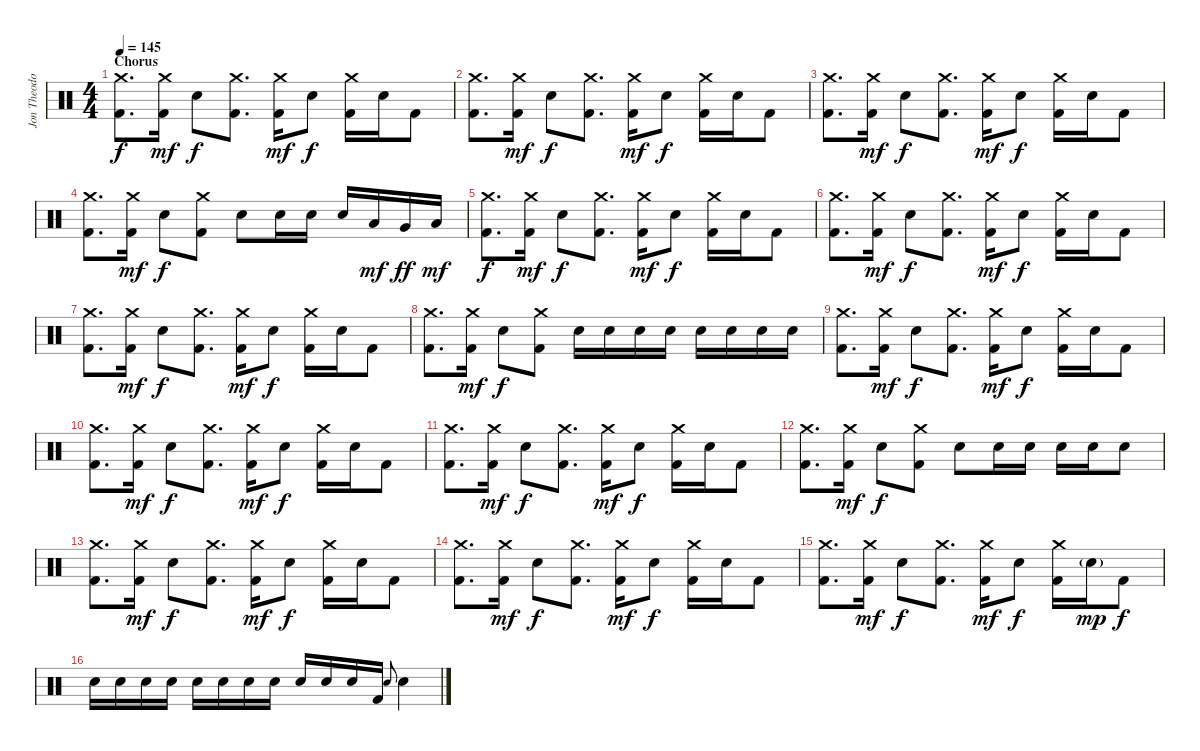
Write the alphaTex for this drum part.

\track ("Jon Theodore - Drums" "Jon Theodo") {instrument percussion}
\staff {score}
\articulation defaults
\ts (4 4)
\section ("" "Chorus")
\tempo 145
\clef neutral
\ks c
("Crash medium (hit)" "Kick (hit) 2").8{d dy f} ("Crash medium (hit)" "Kick (hit) 2").16{dy mf} "Electric Snare (hit)".8{dy f} ("Crash medium (hit)" "Kick (hit) 2").8{d} ("Crash medium (hit)" "Kick (hit) 2").16{dy mf} "Electric Snare (hit)".8{dy f} ("Crash medium (hit)" "Kick (hit) 2").16 "Electric Snare (hit)".16 "Kick (hit) 2".8 |
("Crash medium (hit)" "Kick (hit) 2").8{d} ("Crash medium (hit)" "Kick (hit) 2").16{dy mf} "Electric Snare (hit)".8{dy f} ("Crash medium (hit)" "Kick (hit) 2").8{d} ("Crash medium (hit)" "Kick (hit) 2").16{dy mf} "Electric Snare (hit)".8{dy f} ("Crash medium (hit)" "Kick (hit) 2").16 "Electric Snare (hit)".16 "Kick (hit) 2".8 |
("Crash medium (hit)" "Kick (hit) 2").8{d} ("Crash medium (hit)" "Kick (hit) 2").16{dy mf} "Electric Snare (hit)".8{dy f} ("Crash medium (hit)" "Kick (hit) 2").8{d} ("Crash medium (hit)" "Kick (hit) 2").16{dy mf} "Electric Snare (hit)".8{dy f} ("Crash medium (hit)" "Kick (hit) 2").16 "Electric Snare (hit)".16 "Kick (hit) 2".8 |
("Crash medium (hit)" "Kick (hit) 2").8{d} ("Crash medium (hit)" "Kick (hit) 2").16{dy mf} "Electric Snare (hit)".8{dy f} ("Crash medium (hit)" "Kick (hit) 2").8 "Electric Snare (hit)".8 "Electric Snare (hit)".16 "Electric Snare (hit)".16 "Electric Snare (hit)".16 "Low Tom (hit)".16{dy mf} "Very Low Tom (hit)".16{dy ff} "Low Floor Tom (hit)".16{dy mf} |
("Crash medium (hit)" "Kick (hit) 2").8{d dy f} ("Crash medium (hit)" "Kick (hit) 2").16{dy mf} "Electric Snare (hit)".8{dy f} ("Crash medium (hit)" "Kick (hit) 2").8{d} ("Crash medium (hit)" "Kick (hit) 2").16{dy mf} "Electric Snare (hit)".8{dy f} ("Crash medium (hit)" "Kick (hit) 2").16 "Electric Snare (hit)".16 "Kick (hit) 2".8 |
("Crash medium (hit)" "Kick (hit) 2").8{d} ("Crash medium (hit)" "Kick (hit) 2").16{dy mf} "Electric Snare (hit)".8{dy f} ("Crash medium (hit)" "Kick (hit) 2").8{d} ("Crash medium (hit)" "Kick (hit) 2").16{dy mf} "Electric Snare (hit)".8{dy f} ("Crash medium (hit)" "Kick (hit) 2").16 "Electric Snare (hit)".16 "Kick (hit) 2".8 |
("Crash medium (hit)" "Kick (hit) 2").8{d} ("Crash medium (hit)" "Kick (hit) 2").16{dy mf} "Electric Snare (hit)".8{dy f} ("Crash medium (hit)" "Kick (hit) 2").8{d} ("Crash medium (hit)" "Kick (hit) 2").16{dy mf} "Electric Snare (hit)".8{dy f} ("Crash medium (hit)" "Kick (hit) 2").16 "Electric Snare (hit)".16 "Kick (hit) 2".8 |
("Crash medium (hit)" "Kick (hit) 2").8{d} ("Crash medium (hit)" "Kick (hit) 2").16{dy mf} "Electric Snare (hit)".8{dy f} ("Crash medium (hit)" "Kick (hit) 2").8 "Electric Snare (hit)".16 "Electric Snare (hit)".16 "Electric Snare (hit)".16 "Electric Snare (hit)".16 "Electric Snare (hit)".16 "Electric Snare (hit)".16 "Electric Snare (hit)".16 "Electric Snare (hit)".16 |
("Crash medium (hit)" "Kick (hit) 2").8{d} ("Crash medium (hit)" "Kick (hit) 2").16{dy mf} "Electric Snare (hit)".8{dy f} ("Crash medium (hit)" "Kick (hit) 2").8{d} ("Crash medium (hit)" "Kick (hit) 2").16{dy mf} "Electric Snare (hit)".8{dy f} ("Crash medium (hit)" "Kick (hit) 2").16 "Electric Snare (hit)".16 "Kick (hit) 2".8 |
("Crash medium (hit)" "Kick (hit) 2").8{d} ("Crash medium (hit)" "Kick (hit) 2").16{dy mf} "Electric Snare (hit)".8{dy f} ("Crash medium (hit)" "Kick (hit) 2").8{d} ("Crash medium (hit)" "Kick (hit) 2").16{dy mf} "Electric Snare (hit)".8{dy f} ("Crash medium (hit)" "Kick (hit) 2").16 "Electric Snare (hit)".16 "Kick (hit) 2".8 |
("Crash medium (hit)" "Kick (hit) 2").8{d} ("Crash medium (hit)" "Kick (hit) 2").16{dy mf} "Electric Snare (hit)".8{dy f} ("Crash medium (hit)" "Kick (hit) 2").8{d} ("Crash medium (hit)" "Kick (hit) 2").16{dy mf} "Electric Snare (hit)".8{dy f} ("Crash medium (hit)" "Kick (hit) 2").16 "Electric Snare (hit)".16 "Kick (hit) 2".8 |
("Crash medium (hit)" "Kick (hit) 2").8{d} ("Crash medium (hit)" "Kick (hit) 2").16{dy mf} "Electric Snare (hit)".8{dy f} ("Crash medium (hit)" "Kick (hit) 2").8 "Electric Snare (hit)".8 "Electric Snare (hit)".16 "Electric Snare (hit)".16 "Electric Snare (hit)".16 "Electric Snare (hit)".16 "Electric Snare (hit)".8 |
("Crash medium (hit)" "Kick (hit) 2").8{d} ("Crash medium (hit)" "Kick (hit) 2").16{dy mf} "Electric Snare (hit)".8{dy f} ("Crash medium (hit)" "Kick (hit) 2").8{d} ("Crash medium (hit)" "Kick (hit) 2").16{dy mf} "Electric Snare (hit)".8{dy f} ("Crash medium (hit)" "Kick (hit) 2").16 "Electric Snare (hit)".16 "Kick (hit) 2".8 |
("Crash medium (hit)" "Kick (hit) 2").8{d} ("Crash medium (hit)" "Kick (hit) 2").16{dy mf} "Electric Snare (hit)".8{dy f} ("Crash medium (hit)" "Kick (hit) 2").8{d} ("Crash medium (hit)" "Kick (hit) 2").16{dy mf} "Electric Snare (hit)".8{dy f} ("Crash medium (hit)" "Kick (hit) 2").16 "Electric Snare (hit)".16 "Kick (hit) 2".8 |
("Crash medium (hit)" "Kick (hit) 2").8{d} ("Crash medium (hit)" "Kick (hit) 2").16{dy mf} "Electric Snare (hit)".8{dy f} ("Crash medium (hit)" "Kick (hit) 2").8{d} ("Crash medium (hit)" "Kick (hit) 2").16{dy mf} "Electric Snare (hit)".8{dy f} ("Crash medium (hit)" "Kick (hit) 2").16 "Electric Snare (hit)"{g}.16{dy mp} "Kick (hit) 2".8{dy f} |
"Electric Snare (hit)".16 "Electric Snare (hit)".16 "Electric Snare (hit)".16 "Electric Snare (hit)".16 "Electric Snare (hit)".16 "Electric Snare (hit)".16 "Electric Snare (hit)".16 "Electric Snare (hit)".16 "Electric Snare (hit)".16 "Electric Snare (hit)".16 "Electric Snare (hit)".16 "Kick (hit) 2".16 "Electric Snare (hit)".8{gr onbeat} "Electric Snare (hit)".4
